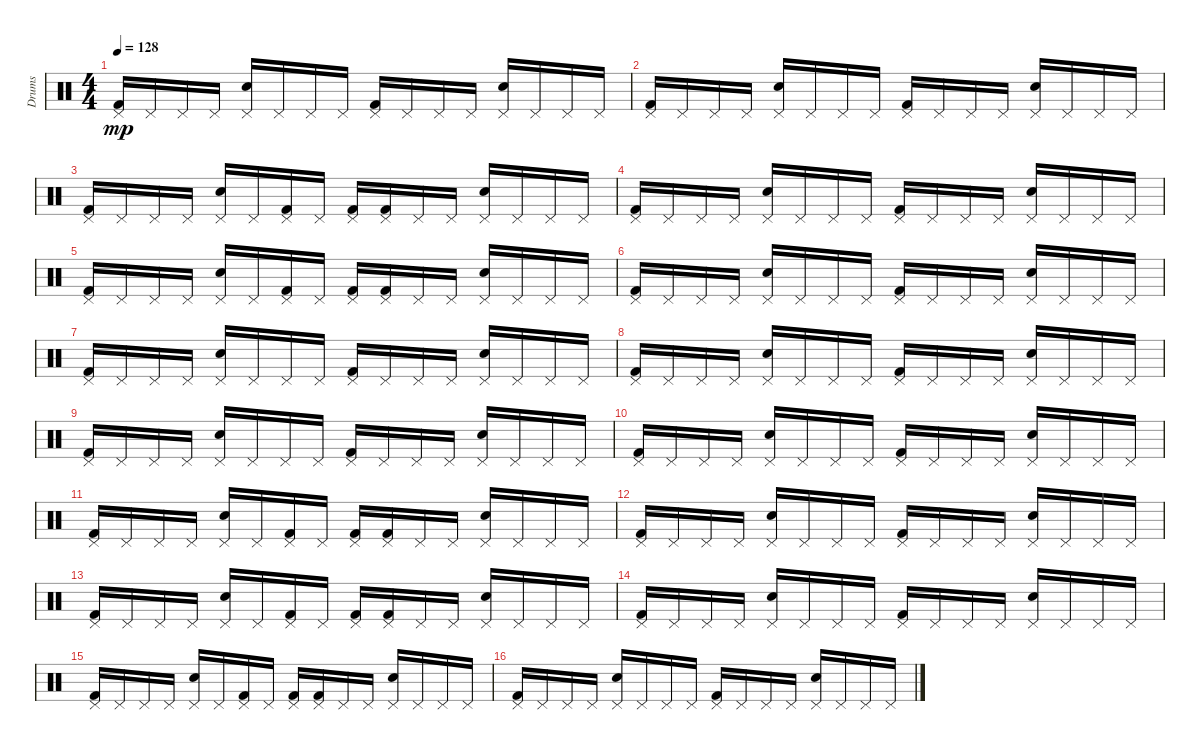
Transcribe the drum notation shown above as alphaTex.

\track ("Drums" "Drums") {instrument percussion}
\staff {score}
\articulation defaults
\ts (4 4)
\tempo 128
\clef neutral
\ks c
("Kick (hit) 2" "Pedal Hi-Hat (hit)").16{dy mp} "Pedal Hi-Hat (hit)".16 "Pedal Hi-Hat (hit)".16 "Pedal Hi-Hat (hit)".16 ("Pedal Hi-Hat (hit)" "Electric Snare (hit)").16 "Pedal Hi-Hat (hit)".16 "Pedal Hi-Hat (hit)".16 "Pedal Hi-Hat (hit)".16 ("Kick (hit) 2" "Pedal Hi-Hat (hit)").16 "Pedal Hi-Hat (hit)".16 "Pedal Hi-Hat (hit)".16 "Pedal Hi-Hat (hit)".16 ("Electric Snare (hit)" "Pedal Hi-Hat (hit)").16 "Pedal Hi-Hat (hit)".16 "Pedal Hi-Hat (hit)".16 "Pedal Hi-Hat (hit)".16 |
("Pedal Hi-Hat (hit)" "Kick (hit) 2").16 "Pedal Hi-Hat (hit)".16 "Pedal Hi-Hat (hit)".16 "Pedal Hi-Hat (hit)".16 ("Electric Snare (hit)" "Pedal Hi-Hat (hit)").16 "Pedal Hi-Hat (hit)".16 "Pedal Hi-Hat (hit)".16 "Pedal Hi-Hat (hit)".16 ("Kick (hit) 2" "Pedal Hi-Hat (hit)").16 "Pedal Hi-Hat (hit)".16 "Pedal Hi-Hat (hit)".16 "Pedal Hi-Hat (hit)".16 ("Pedal Hi-Hat (hit)" "Electric Snare (hit)").16 "Pedal Hi-Hat (hit)".16 "Pedal Hi-Hat (hit)".16 "Pedal Hi-Hat (hit)".16 |
("Kick (hit) 2" "Pedal Hi-Hat (hit)").16 "Pedal Hi-Hat (hit)".16 "Pedal Hi-Hat (hit)".16 "Pedal Hi-Hat (hit)".16 ("Electric Snare (hit)" "Pedal Hi-Hat (hit)").16 "Pedal Hi-Hat (hit)".16 ("Kick (hit) 2" "Pedal Hi-Hat (hit)").16 "Pedal Hi-Hat (hit)".16 ("Kick (hit) 2" "Pedal Hi-Hat (hit)").16 ("Kick (hit) 2" "Pedal Hi-Hat (hit)").16 "Pedal Hi-Hat (hit)".16 "Pedal Hi-Hat (hit)".16 ("Electric Snare (hit)" "Pedal Hi-Hat (hit)").16 "Pedal Hi-Hat (hit)".16 "Pedal Hi-Hat (hit)".16 "Pedal Hi-Hat (hit)".16 |
("Pedal Hi-Hat (hit)" "Kick (hit) 2").16 "Pedal Hi-Hat (hit)".16 "Pedal Hi-Hat (hit)".16 "Pedal Hi-Hat (hit)".16 ("Pedal Hi-Hat (hit)" "Electric Snare (hit)").16 "Pedal Hi-Hat (hit)".16 "Pedal Hi-Hat (hit)".16 "Pedal Hi-Hat (hit)".16 ("Pedal Hi-Hat (hit)" "Kick (hit) 2").16 "Pedal Hi-Hat (hit)".16 "Pedal Hi-Hat (hit)".16 "Pedal Hi-Hat (hit)".16 ("Pedal Hi-Hat (hit)" "Electric Snare (hit)").16 "Pedal Hi-Hat (hit)".16 "Pedal Hi-Hat (hit)".16 "Pedal Hi-Hat (hit)".16 |
("Kick (hit) 2" "Pedal Hi-Hat (hit)").16 "Pedal Hi-Hat (hit)".16 "Pedal Hi-Hat (hit)".16 "Pedal Hi-Hat (hit)".16 ("Pedal Hi-Hat (hit)" "Electric Snare (hit)").16 "Pedal Hi-Hat (hit)".16 ("Kick (hit) 2" "Pedal Hi-Hat (hit)").16 "Pedal Hi-Hat (hit)".16 ("Pedal Hi-Hat (hit)" "Kick (hit) 2").16 ("Kick (hit) 2" "Pedal Hi-Hat (hit)").16 "Pedal Hi-Hat (hit)".16 "Pedal Hi-Hat (hit)".16 ("Pedal Hi-Hat (hit)" "Electric Snare (hit)").16 "Pedal Hi-Hat (hit)".16 "Pedal Hi-Hat (hit)".16 "Pedal Hi-Hat (hit)".16 |
("Pedal Hi-Hat (hit)" "Kick (hit) 2").16 "Pedal Hi-Hat (hit)".16 "Pedal Hi-Hat (hit)".16 "Pedal Hi-Hat (hit)".16 ("Electric Snare (hit)" "Pedal Hi-Hat (hit)").16 "Pedal Hi-Hat (hit)".16 "Pedal Hi-Hat (hit)".16 "Pedal Hi-Hat (hit)".16 ("Kick (hit) 2" "Pedal Hi-Hat (hit)").16 "Pedal Hi-Hat (hit)".16 "Pedal Hi-Hat (hit)".16 "Pedal Hi-Hat (hit)".16 ("Pedal Hi-Hat (hit)" "Electric Snare (hit)").16 "Pedal Hi-Hat (hit)".16 "Pedal Hi-Hat (hit)".16 "Pedal Hi-Hat (hit)".16 |
("Kick (hit) 2" "Pedal Hi-Hat (hit)").16 "Pedal Hi-Hat (hit)".16 "Pedal Hi-Hat (hit)".16 "Pedal Hi-Hat (hit)".16 ("Electric Snare (hit)" "Pedal Hi-Hat (hit)").16 "Pedal Hi-Hat (hit)".16 "Pedal Hi-Hat (hit)".16 "Pedal Hi-Hat (hit)".16 ("Kick (hit) 2" "Pedal Hi-Hat (hit)").16 "Pedal Hi-Hat (hit)".16 "Pedal Hi-Hat (hit)".16 "Pedal Hi-Hat (hit)".16 ("Electric Snare (hit)" "Pedal Hi-Hat (hit)").16 "Pedal Hi-Hat (hit)".16 "Pedal Hi-Hat (hit)".16 "Pedal Hi-Hat (hit)".16 |
("Pedal Hi-Hat (hit)" "Kick (hit) 2").16 "Pedal Hi-Hat (hit)".16 "Pedal Hi-Hat (hit)".16 "Pedal Hi-Hat (hit)".16 ("Pedal Hi-Hat (hit)" "Electric Snare (hit)").16 "Pedal Hi-Hat (hit)".16 "Pedal Hi-Hat (hit)".16 "Pedal Hi-Hat (hit)".16 ("Kick (hit) 2" "Pedal Hi-Hat (hit)").16 "Pedal Hi-Hat (hit)".16 "Pedal Hi-Hat (hit)".16 "Pedal Hi-Hat (hit)".16 ("Electric Snare (hit)" "Pedal Hi-Hat (hit)").16 "Pedal Hi-Hat (hit)".16 "Pedal Hi-Hat (hit)".16 "Pedal Hi-Hat (hit)".16 |
("Pedal Hi-Hat (hit)" "Kick (hit) 2").16 "Pedal Hi-Hat (hit)".16 "Pedal Hi-Hat (hit)".16 "Pedal Hi-Hat (hit)".16 ("Pedal Hi-Hat (hit)" "Electric Snare (hit)").16 "Pedal Hi-Hat (hit)".16 "Pedal Hi-Hat (hit)".16 "Pedal Hi-Hat (hit)".16 ("Pedal Hi-Hat (hit)" "Kick (hit) 2").16 "Pedal Hi-Hat (hit)".16 "Pedal Hi-Hat (hit)".16 "Pedal Hi-Hat (hit)".16 ("Pedal Hi-Hat (hit)" "Electric Snare (hit)").16 "Pedal Hi-Hat (hit)".16 "Pedal Hi-Hat (hit)".16 "Pedal Hi-Hat (hit)".16 |
("Pedal Hi-Hat (hit)" "Kick (hit) 2").16 "Pedal Hi-Hat (hit)".16 "Pedal Hi-Hat (hit)".16 "Pedal Hi-Hat (hit)".16 ("Pedal Hi-Hat (hit)" "Electric Snare (hit)").16 "Pedal Hi-Hat (hit)".16 "Pedal Hi-Hat (hit)".16 "Pedal Hi-Hat (hit)".16 ("Kick (hit) 2" "Pedal Hi-Hat (hit)").16 "Pedal Hi-Hat (hit)".16 "Pedal Hi-Hat (hit)".16 "Pedal Hi-Hat (hit)".16 ("Electric Snare (hit)" "Pedal Hi-Hat (hit)").16 "Pedal Hi-Hat (hit)".16 "Pedal Hi-Hat (hit)".16 "Pedal Hi-Hat (hit)".16 |
("Kick (hit) 2" "Pedal Hi-Hat (hit)").16 "Pedal Hi-Hat (hit)".16 "Pedal Hi-Hat (hit)".16 "Pedal Hi-Hat (hit)".16 ("Pedal Hi-Hat (hit)" "Electric Snare (hit)").16 "Pedal Hi-Hat (hit)".16 ("Kick (hit) 2" "Pedal Hi-Hat (hit)").16 "Pedal Hi-Hat (hit)".16 ("Pedal Hi-Hat (hit)" "Kick (hit) 2").16 ("Kick (hit) 2" "Pedal Hi-Hat (hit)").16 "Pedal Hi-Hat (hit)".16 "Pedal Hi-Hat (hit)".16 ("Pedal Hi-Hat (hit)" "Electric Snare (hit)").16 "Pedal Hi-Hat (hit)".16 "Pedal Hi-Hat (hit)".16 "Pedal Hi-Hat (hit)".16 |
("Pedal Hi-Hat (hit)" "Kick (hit) 2").16 "Pedal Hi-Hat (hit)".16 "Pedal Hi-Hat (hit)".16 "Pedal Hi-Hat (hit)".16 ("Electric Snare (hit)" "Pedal Hi-Hat (hit)").16 "Pedal Hi-Hat (hit)".16 "Pedal Hi-Hat (hit)".16 "Pedal Hi-Hat (hit)".16 ("Kick (hit) 2" "Pedal Hi-Hat (hit)").16 "Pedal Hi-Hat (hit)".16 "Pedal Hi-Hat (hit)".16 "Pedal Hi-Hat (hit)".16 ("Electric Snare (hit)" "Pedal Hi-Hat (hit)").16 "Pedal Hi-Hat (hit)".16 "Pedal Hi-Hat (hit)".16 "Pedal Hi-Hat (hit)".16 |
("Kick (hit) 2" "Pedal Hi-Hat (hit)").16 "Pedal Hi-Hat (hit)".16 "Pedal Hi-Hat (hit)".16 "Pedal Hi-Hat (hit)".16 ("Electric Snare (hit)" "Pedal Hi-Hat (hit)").16 "Pedal Hi-Hat (hit)".16 ("Kick (hit) 2" "Pedal Hi-Hat (hit)").16 "Pedal Hi-Hat (hit)".16 ("Kick (hit) 2" "Pedal Hi-Hat (hit)").16 ("Kick (hit) 2" "Pedal Hi-Hat (hit)").16 "Pedal Hi-Hat (hit)".16 "Pedal Hi-Hat (hit)".16 ("Pedal Hi-Hat (hit)" "Electric Snare (hit)").16 "Pedal Hi-Hat (hit)".16 "Pedal Hi-Hat (hit)".16 "Pedal Hi-Hat (hit)".16 |
("Pedal Hi-Hat (hit)" "Kick (hit) 2").16 "Pedal Hi-Hat (hit)".16 "Pedal Hi-Hat (hit)".16 "Pedal Hi-Hat (hit)".16 ("Electric Snare (hit)" "Pedal Hi-Hat (hit)").16 "Pedal Hi-Hat (hit)".16 "Pedal Hi-Hat (hit)".16 "Pedal Hi-Hat (hit)".16 ("Pedal Hi-Hat (hit)" "Kick (hit) 2").16 "Pedal Hi-Hat (hit)".16 "Pedal Hi-Hat (hit)".16 "Pedal Hi-Hat (hit)".16 ("Electric Snare (hit)" "Pedal Hi-Hat (hit)").16 "Pedal Hi-Hat (hit)".16 "Pedal Hi-Hat (hit)".16 "Pedal Hi-Hat (hit)".16 |
("Pedal Hi-Hat (hit)" "Kick (hit) 2").16 "Pedal Hi-Hat (hit)".16 "Pedal Hi-Hat (hit)".16 "Pedal Hi-Hat (hit)".16 ("Pedal Hi-Hat (hit)" "Electric Snare (hit)").16 "Pedal Hi-Hat (hit)".16 ("Pedal Hi-Hat (hit)" "Kick (hit) 2").16 "Pedal Hi-Hat (hit)".16 ("Pedal Hi-Hat (hit)" "Kick (hit) 2").16 ("Kick (hit) 2" "Pedal Hi-Hat (hit)").16 "Pedal Hi-Hat (hit)".16 "Pedal Hi-Hat (hit)".16 ("Electric Snare (hit)" "Pedal Hi-Hat (hit)").16 "Pedal Hi-Hat (hit)".16 "Pedal Hi-Hat (hit)".16 "Pedal Hi-Hat (hit)".16 |
("Kick (hit) 2" "Pedal Hi-Hat (hit)").16 "Pedal Hi-Hat (hit)".16 "Pedal Hi-Hat (hit)".16 "Pedal Hi-Hat (hit)".16 ("Electric Snare (hit)" "Pedal Hi-Hat (hit)").16 "Pedal Hi-Hat (hit)".16 "Pedal Hi-Hat (hit)".16 "Pedal Hi-Hat (hit)".16 ("Pedal Hi-Hat (hit)" "Kick (hit) 2").16 "Pedal Hi-Hat (hit)".16 "Pedal Hi-Hat (hit)".16 "Pedal Hi-Hat (hit)".16 ("Pedal Hi-Hat (hit)" "Electric Snare (hit)").16 "Pedal Hi-Hat (hit)".16 "Pedal Hi-Hat (hit)".16 "Pedal Hi-Hat (hit)".16
